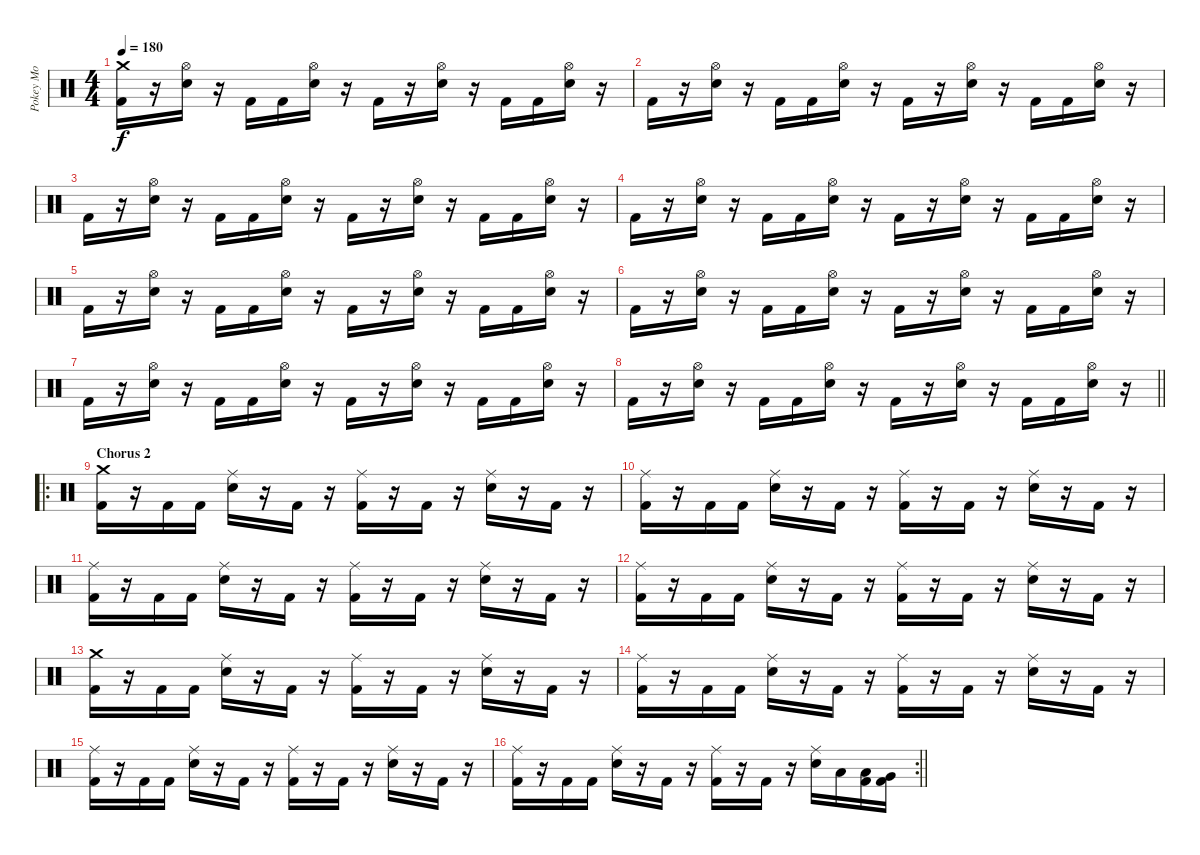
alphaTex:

\track ("Pokey Mo" "Pokey Mo") {instrument percussion}
\staff {score}
\articulation defaults
\ts (4 4)
\tempo 180
\clef neutral
\ks c
("Crash medium (hit)" "Kick (hit) 2").16{dy f} r.16 ("Hi-Hat (open)" "Electric Snare (hit)").16 r.16 "Kick (hit) 2".16 "Kick (hit) 2".16 ("Hi-Hat (open)" "Electric Snare (hit)").16 r.16 "Kick (hit) 2".16 r.16 ("Hi-Hat (open)" "Electric Snare (hit)").16 r.16 "Kick (hit) 2".16 "Kick (hit) 2".16 ("Hi-Hat (open)" "Electric Snare (hit)").16 r.16 |
"Kick (hit) 2".16 r.16 ("Hi-Hat (open)" "Electric Snare (hit)").16 r.16 "Kick (hit) 2".16 "Kick (hit) 2".16 ("Hi-Hat (open)" "Electric Snare (hit)").16 r.16 "Kick (hit) 2".16 r.16 ("Hi-Hat (open)" "Electric Snare (hit)").16 r.16 "Kick (hit) 2".16 "Kick (hit) 2".16 ("Hi-Hat (open)" "Electric Snare (hit)").16 r.16 |
"Kick (hit) 2".16 r.16 ("Hi-Hat (open)" "Electric Snare (hit)").16 r.16 "Kick (hit) 2".16 "Kick (hit) 2".16 ("Hi-Hat (open)" "Electric Snare (hit)").16 r.16 "Kick (hit) 2".16 r.16 ("Hi-Hat (open)" "Electric Snare (hit)").16 r.16 "Kick (hit) 2".16 "Kick (hit) 2".16 ("Hi-Hat (open)" "Electric Snare (hit)").16 r.16 |
"Kick (hit) 2".16 r.16 ("Hi-Hat (open)" "Electric Snare (hit)").16 r.16 "Kick (hit) 2".16 "Kick (hit) 2".16 ("Hi-Hat (open)" "Electric Snare (hit)").16 r.16 "Kick (hit) 2".16 r.16 ("Hi-Hat (open)" "Electric Snare (hit)").16 r.16 "Kick (hit) 2".16 "Kick (hit) 2".16 ("Hi-Hat (open)" "Electric Snare (hit)").16 r.16 |
"Kick (hit) 2".16 r.16 ("Hi-Hat (open)" "Electric Snare (hit)").16 r.16 "Kick (hit) 2".16 "Kick (hit) 2".16 ("Hi-Hat (open)" "Electric Snare (hit)").16 r.16 "Kick (hit) 2".16 r.16 ("Hi-Hat (open)" "Electric Snare (hit)").16 r.16 "Kick (hit) 2".16 "Kick (hit) 2".16 ("Hi-Hat (open)" "Electric Snare (hit)").16 r.16 |
"Kick (hit) 2".16 r.16 ("Hi-Hat (open)" "Electric Snare (hit)").16 r.16 "Kick (hit) 2".16 "Kick (hit) 2".16 ("Hi-Hat (open)" "Electric Snare (hit)").16 r.16 "Kick (hit) 2".16 r.16 ("Hi-Hat (open)" "Electric Snare (hit)").16 r.16 "Kick (hit) 2".16 "Kick (hit) 2".16 ("Hi-Hat (open)" "Electric Snare (hit)").16 r.16 |
"Kick (hit) 2".16 r.16 ("Hi-Hat (open)" "Electric Snare (hit)").16 r.16 "Kick (hit) 2".16 "Kick (hit) 2".16 ("Hi-Hat (open)" "Electric Snare (hit)").16 r.16 "Kick (hit) 2".16 r.16 ("Hi-Hat (open)" "Electric Snare (hit)").16 r.16 "Kick (hit) 2".16 "Kick (hit) 2".16 ("Hi-Hat (open)" "Electric Snare (hit)").16 r.16 |
\barLineRight lightlight "Kick (hit) 2".16
r.16 ("Hi-Hat (open)" "Electric Snare (hit)").16 r.16 "Kick (hit) 2".16 "Kick (hit) 2".16 ("Hi-Hat (open)" "Electric Snare (hit)").16 r.16 "Kick (hit) 2".16 r.16 ("Hi-Hat (open)" "Electric Snare (hit)").16 r.16 "Kick (hit) 2".16 "Kick (hit) 2".16 ("Hi-Hat (open)" "Electric Snare (hit)").16 r.16 |
\ro
\section ("" "Chorus 2")
("Crash medium (hit)" "Kick (hit) 2").16 r.16 "Kick (hit) 2".16 "Kick (hit) 2".16 ("Ride (middle)" "Electric Snare (hit)").16 r.16 "Kick (hit) 2".16 r.16 ("Ride (middle)" "Kick (hit) 2").16 r.16 "Kick (hit) 2".16 r.16 ("Ride (middle)" "Electric Snare (hit)").16 r.16 "Kick (hit) 2".16 r.16 |
("Ride (middle)" "Kick (hit) 2").16 r.16 "Kick (hit) 2".16 "Kick (hit) 2".16 ("Ride (middle)" "Electric Snare (hit)").16 r.16 "Kick (hit) 2".16 r.16 ("Ride (middle)" "Kick (hit) 2").16 r.16 "Kick (hit) 2".16 r.16 ("Ride (middle)" "Electric Snare (hit)").16 r.16 "Kick (hit) 2".16 r.16 |
("Ride (middle)" "Kick (hit) 2").16 r.16 "Kick (hit) 2".16 "Kick (hit) 2".16 ("Ride (middle)" "Electric Snare (hit)").16 r.16 "Kick (hit) 2".16 r.16 ("Ride (middle)" "Kick (hit) 2").16 r.16 "Kick (hit) 2".16 r.16 ("Ride (middle)" "Electric Snare (hit)").16 r.16 "Kick (hit) 2".16 r.16 |
("Ride (middle)" "Kick (hit) 2").16 r.16 "Kick (hit) 2".16 "Kick (hit) 2".16 ("Ride (middle)" "Electric Snare (hit)").16 r.16 "Kick (hit) 2".16 r.16 ("Ride (middle)" "Kick (hit) 2").16 r.16 "Kick (hit) 2".16 r.16 ("Ride (middle)" "Electric Snare (hit)").16 r.16 "Kick (hit) 2".16 r.16 |
("Crash medium (hit)" "Kick (hit) 2").16 r.16 "Kick (hit) 2".16 "Kick (hit) 2".16 ("Ride (middle)" "Electric Snare (hit)").16 r.16 "Kick (hit) 2".16 r.16 ("Ride (middle)" "Kick (hit) 2").16 r.16 "Kick (hit) 2".16 r.16 ("Ride (middle)" "Electric Snare (hit)").16 r.16 "Kick (hit) 2".16 r.16 |
("Ride (middle)" "Kick (hit) 2").16 r.16 "Kick (hit) 2".16 "Kick (hit) 2".16 ("Ride (middle)" "Electric Snare (hit)").16 r.16 "Kick (hit) 2".16 r.16 ("Ride (middle)" "Kick (hit) 2").16 r.16 "Kick (hit) 2".16 r.16 ("Ride (middle)" "Electric Snare (hit)").16 r.16 "Kick (hit) 2".16 r.16 |
("Ride (middle)" "Kick (hit) 2").16 r.16 "Kick (hit) 2".16 "Kick (hit) 2".16 ("Ride (middle)" "Electric Snare (hit)").16 r.16 "Kick (hit) 2".16 r.16 ("Ride (middle)" "Kick (hit) 2").16 r.16 "Kick (hit) 2".16 r.16 ("Ride (middle)" "Electric Snare (hit)").16 r.16 "Kick (hit) 2".16 r.16 |
\rc 2
\barLineRight lightlight
("Ride (middle)" "Kick (hit) 2").16 r.16 "Kick (hit) 2".16 "Kick (hit) 2".16 ("Ride (middle)" "Electric Snare (hit)").16 r.16 "Kick (hit) 2".16 r.16 ("Ride (middle)" "Kick (hit) 2").16 r.16 "Kick (hit) 2".16 r.16 ("Ride (middle)" "Electric Snare (hit)").16 "Low Tom (hit)".16 ("Low Tom (hit)" "Kick (hit) 2").16 ("Very Low Tom (hit)" "Kick (hit) 2").16
